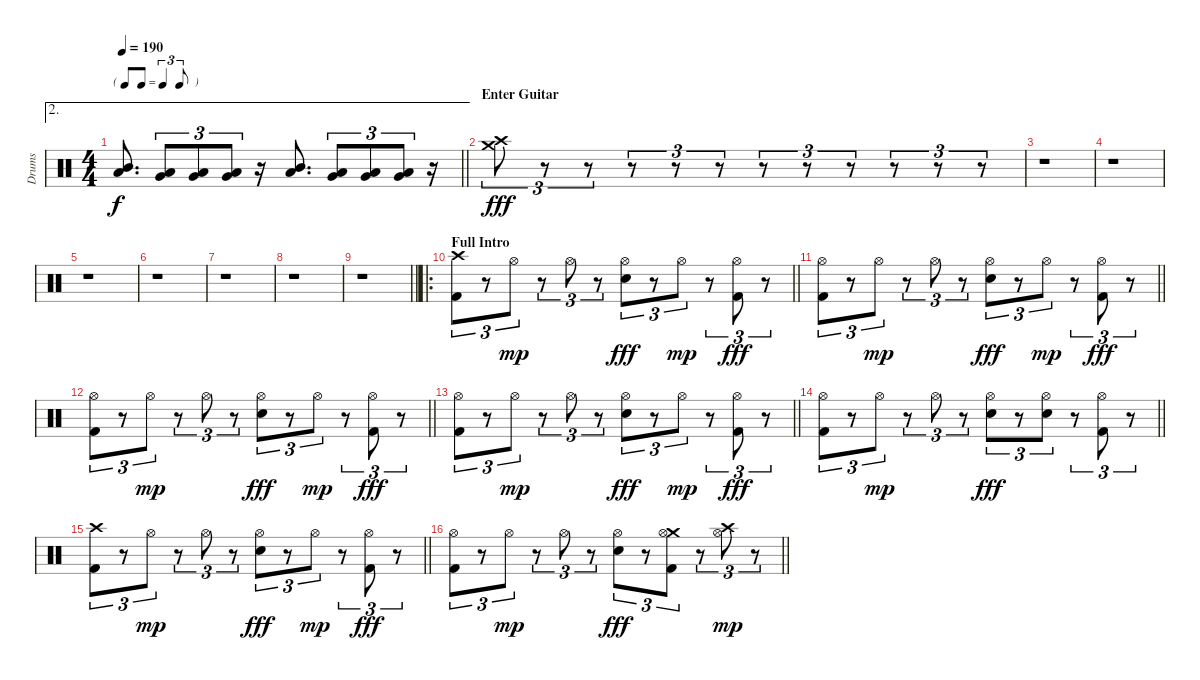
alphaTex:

\track ("Drums" "Drums") {instrument percussion}
\staff {score}
\articulation defaults
\ae 2
\ts (4 4)
\tf triplet8th
\tempo 190
\clef neutral
\barLineRight lightlight
\ks c
("Mid Tom (hit)" "Low Floor Tom (hit)").8{d dy f} ("Very Low Tom (hit)" "Low Floor Tom (hit)").8{tu (3 2)} ("Very Low Tom (hit)" "Low Floor Tom (hit)").8{tu (3 2)} ("Very Low Tom (hit)" "Low Floor Tom (hit)").8{tu (3 2)} r.16 ("Mid Tom (hit)" "Low Floor Tom (hit)").8{d} ("Very Low Tom (hit)" "Low Floor Tom (hit)").8{tu (3 2)} ("Very Low Tom (hit)" "Low Floor Tom (hit)").8{tu (3 2)} ("Very Low Tom (hit)" "Low Floor Tom (hit)").8{tu (3 2)} r.16 |
\section ("" "Enter Guitar")
("Crash medium (hit)" "Crash high (hit)").8{tu (3 2) dy fff} r.8{tu (3 2)} r.8{tu (3 2)} r.8{tu (3 2)} r.8{tu (3 2)} r.8{tu (3 2)} r.8{tu (3 2)} r.8{tu (3 2)} r.8{tu (3 2)} r.8{tu (3 2)} r.8{tu (3 2)} r.8{tu (3 2)} |
r.1 |
r.1 |
r.1 |
r.1 |
r.1 |
r.1 |
\barLineRight lightlight
r.1 |
\ro
\section ("" "Full Intro")
\barLineRight lightlight
("Crash high (hit)" "Kick (hit) 2").8{tu (3 2)} r.8{tu (3 2)} "Hi-Hat (open)".8{tu (3 2) dy mp} r.8{tu (3 2)} "Hi-Hat (open)".8{tu (3 2)} r.8{tu (3 2)} ("Hi-Hat (open)" "Electric Snare (hit)").8{tu (3 2) dy fff} r.8{tu (3 2)} "Hi-Hat (open)".8{tu (3 2) dy mp} r.8{tu (3 2)} ("Hi-Hat (open)" "Kick (hit) 2").8{tu (3 2) dy fff} r.8{tu (3 2)} |
\barLineRight lightlight
("Hi-Hat (open)" "Kick (hit) 2").8{tu (3 2)} r.8{tu (3 2)} "Hi-Hat (open)".8{tu (3 2) dy mp} r.8{tu (3 2)} "Hi-Hat (open)".8{tu (3 2)} r.8{tu (3 2)} ("Hi-Hat (open)" "Electric Snare (hit)").8{tu (3 2) dy fff} r.8{tu (3 2)} "Hi-Hat (open)".8{tu (3 2) dy mp} r.8{tu (3 2)} ("Hi-Hat (open)" "Kick (hit) 2").8{tu (3 2) dy fff} r.8{tu (3 2)} |
\barLineRight lightlight
("Hi-Hat (open)" "Kick (hit) 2").8{tu (3 2)} r.8{tu (3 2)} "Hi-Hat (open)".8{tu (3 2) dy mp} r.8{tu (3 2)} "Hi-Hat (open)".8{tu (3 2)} r.8{tu (3 2)} ("Hi-Hat (open)" "Electric Snare (hit)").8{tu (3 2) dy fff} r.8{tu (3 2)} "Hi-Hat (open)".8{tu (3 2) dy mp} r.8{tu (3 2)} ("Hi-Hat (open)" "Kick (hit) 2").8{tu (3 2) dy fff} r.8{tu (3 2)} |
\barLineRight lightlight
("Hi-Hat (open)" "Kick (hit) 2").8{tu (3 2)} r.8{tu (3 2)} "Hi-Hat (open)".8{tu (3 2) dy mp} r.8{tu (3 2)} "Hi-Hat (open)".8{tu (3 2)} r.8{tu (3 2)} ("Hi-Hat (open)" "Electric Snare (hit)").8{tu (3 2) dy fff} r.8{tu (3 2)} "Hi-Hat (open)".8{tu (3 2) dy mp} r.8{tu (3 2)} ("Hi-Hat (open)" "Kick (hit) 2").8{tu (3 2) dy fff} r.8{tu (3 2)} |
\barLineRight lightlight
("Hi-Hat (open)" "Kick (hit) 2").8{tu (3 2)} r.8{tu (3 2)} "Hi-Hat (open)".8{tu (3 2) dy mp} r.8{tu (3 2)} "Hi-Hat (open)".8{tu (3 2)} r.8{tu (3 2)} ("Hi-Hat (open)" "Electric Snare (hit)").8{tu (3 2) dy fff} r.8{tu (3 2)} ("Hi-Hat (open)" "Electric Snare (hit)").8{tu (3 2)} r.8{tu (3 2)} ("Hi-Hat (open)" "Kick (hit) 2").8{tu (3 2)} r.8{tu (3 2)} |
\barLineRight lightlight
("Crash high (hit)" "Kick (hit) 2").8{tu (3 2)} r.8{tu (3 2)} "Hi-Hat (open)".8{tu (3 2) dy mp} r.8{tu (3 2)} "Hi-Hat (open)".8{tu (3 2)} r.8{tu (3 2)} ("Hi-Hat (open)" "Electric Snare (hit)").8{tu (3 2) dy fff} r.8{tu (3 2)} "Hi-Hat (open)".8{tu (3 2) dy mp} r.8{tu (3 2)} ("Hi-Hat (open)" "Kick (hit) 2").8{tu (3 2) dy fff} r.8{tu (3 2)} |
\barLineRight lightlight
("Hi-Hat (open)" "Kick (hit) 2").8{tu (3 2)} r.8{tu (3 2)} "Hi-Hat (open)".8{tu (3 2) dy mp} r.8{tu (3 2)} "Hi-Hat (open)".8{tu (3 2)} r.8{tu (3 2)} ("Hi-Hat (open)" "Electric Snare (hit)").8{tu (3 2) dy fff} r.8{tu (3 2)} ("Crash medium (hit)" "Hi-Hat (open)" "Kick (hit) 2").8{tu (3 2)} r.8{tu (3 2)} ("Crash high (hit)" "Hi-Hat (open)").8{tu (3 2) dy mp} r.8{tu (3 2)}
